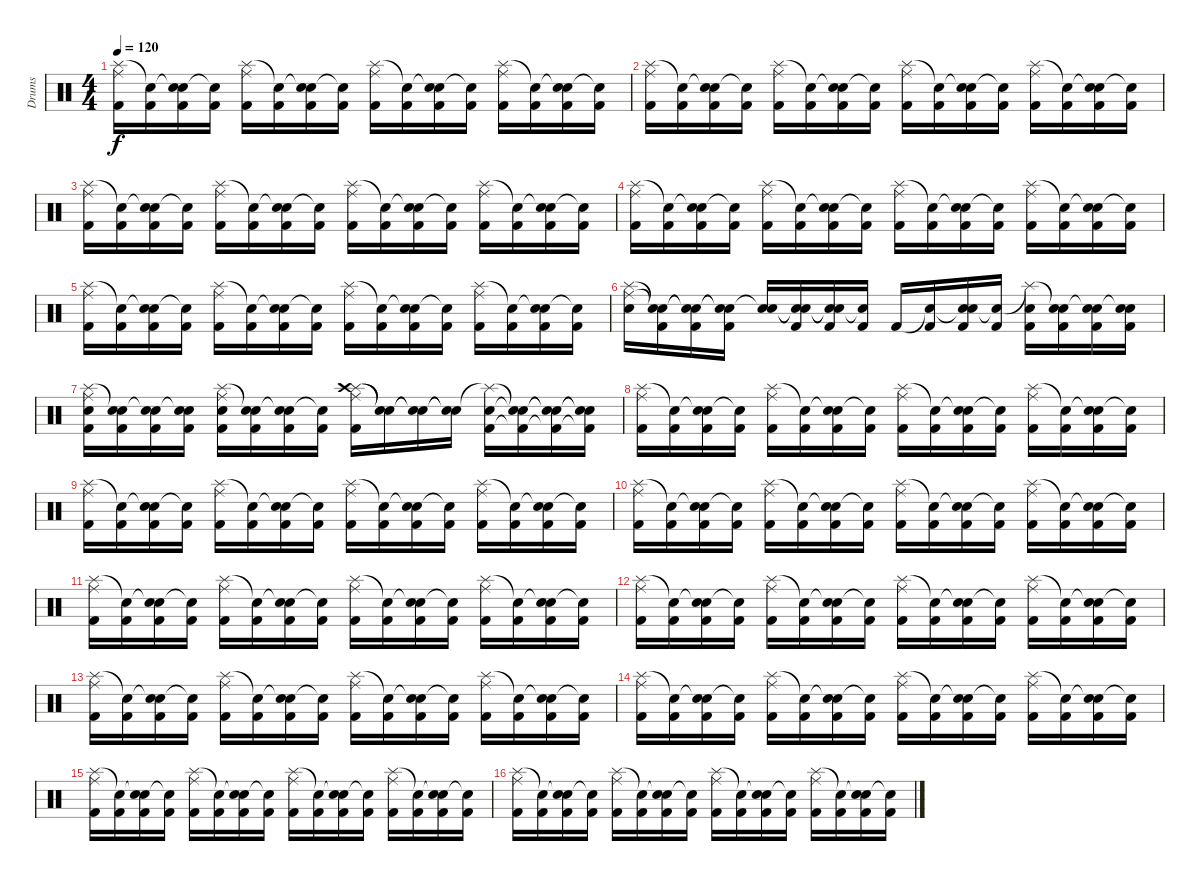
\track ("Drums" "Drums") {instrument percussion}
\staff {score}
\articulation defaults
\ts (4 4)
\tempo 120
\clef neutral
\ks c
("Splash (hit)" "Ride (middle)" "Kick (hit) 2").16{dy f} ("Snare (hit)"{t} "Kick (hit) 2").16 ("Snare (hit)"{t} "Electric Snare (hit)" "Kick (hit) 2").16 ("Snare (hit)"{t} "Kick (hit) 2").16 ("Splash (hit)" "Ride (middle)" "Kick (hit) 2").16 ("Snare (hit)"{t} "Kick (hit) 2").16 ("Snare (hit)"{t} "Electric Snare (hit)" "Kick (hit) 2").16 ("Snare (hit)"{t} "Kick (hit) 2").16 ("Splash (hit)" "Ride (middle)" "Kick (hit) 2").16 ("Snare (hit)"{t} "Kick (hit) 2").16 ("Snare (hit)"{t} "Electric Snare (hit)" "Kick (hit) 2").16 ("Snare (hit)"{t} "Kick (hit) 2").16 ("Splash (hit)" "Ride (middle)" "Kick (hit) 2").16 ("Snare (hit)"{t} "Kick (hit) 2").16 ("Snare (hit)"{t} "Electric Snare (hit)" "Kick (hit) 2").16 ("Snare (hit)"{t} "Kick (hit) 2").16 |
("Splash (hit)" "Ride (middle)" "Kick (hit) 2").16 ("Snare (hit)"{t} "Kick (hit) 2").16 ("Snare (hit)"{t} "Electric Snare (hit)" "Kick (hit) 2").16 ("Snare (hit)"{t} "Kick (hit) 2").16 ("Splash (hit)" "Ride (middle)" "Kick (hit) 2").16 ("Snare (hit)"{t} "Kick (hit) 2").16 ("Snare (hit)"{t} "Electric Snare (hit)" "Kick (hit) 2").16 ("Snare (hit)"{t} "Kick (hit) 2").16 ("Splash (hit)" "Ride (middle)" "Kick (hit) 2").16 ("Snare (hit)"{t} "Kick (hit) 2").16 ("Snare (hit)"{t} "Electric Snare (hit)" "Kick (hit) 2").16 ("Snare (hit)"{t} "Kick (hit) 2").16 ("Splash (hit)" "Ride (middle)" "Kick (hit) 2").16 ("Snare (hit)"{t} "Kick (hit) 2").16 ("Snare (hit)"{t} "Electric Snare (hit)" "Kick (hit) 2").16 ("Snare (hit)"{t} "Kick (hit) 2").16 |
("Splash (hit)" "Ride (middle)" "Kick (hit) 2").16 ("Snare (hit)"{t} "Kick (hit) 2").16 ("Snare (hit)"{t} "Electric Snare (hit)" "Kick (hit) 2").16 ("Snare (hit)"{t} "Kick (hit) 2").16 ("Splash (hit)" "Ride (middle)" "Kick (hit) 2").16 ("Snare (hit)"{t} "Kick (hit) 2").16 ("Snare (hit)"{t} "Electric Snare (hit)" "Kick (hit) 2").16 ("Snare (hit)"{t} "Kick (hit) 2").16 ("Splash (hit)" "Ride (middle)" "Kick (hit) 2").16 ("Snare (hit)"{t} "Kick (hit) 2").16 ("Snare (hit)"{t} "Electric Snare (hit)" "Kick (hit) 2").16 ("Snare (hit)"{t} "Kick (hit) 2").16 ("Splash (hit)" "Ride (middle)" "Kick (hit) 2").16 ("Snare (hit)"{t} "Kick (hit) 2").16 ("Snare (hit)"{t} "Electric Snare (hit)" "Kick (hit) 2").16 ("Snare (hit)"{t} "Kick (hit) 2").16 |
("Splash (hit)" "Ride (middle)" "Kick (hit) 2").16 ("Snare (hit)"{t} "Kick (hit) 2").16 ("Snare (hit)"{t} "Electric Snare (hit)" "Kick (hit) 2").16 ("Snare (hit)"{t} "Kick (hit) 2").16 ("Splash (hit)" "Ride (middle)" "Kick (hit) 2").16 ("Snare (hit)"{t} "Kick (hit) 2").16 ("Snare (hit)"{t} "Electric Snare (hit)" "Kick (hit) 2").16 ("Snare (hit)"{t} "Kick (hit) 2").16 ("Splash (hit)" "Ride (middle)" "Kick (hit) 2").16 ("Snare (hit)"{t} "Kick (hit) 2").16 ("Snare (hit)"{t} "Electric Snare (hit)" "Kick (hit) 2").16 ("Snare (hit)"{t} "Kick (hit) 2").16 ("Splash (hit)" "Ride (middle)" "Kick (hit) 2").16 ("Snare (hit)"{t} "Kick (hit) 2").16 ("Snare (hit)"{t} "Electric Snare (hit)" "Kick (hit) 2").16 ("Snare (hit)"{t} "Kick (hit) 2").16 |
("Splash (hit)" "Ride (middle)" "Kick (hit) 2").16 ("Snare (hit)"{t} "Kick (hit) 2").16 ("Snare (hit)"{t} "Electric Snare (hit)" "Kick (hit) 2").16 ("Snare (hit)"{t} "Kick (hit) 2").16 ("Splash (hit)" "Ride (middle)" "Kick (hit) 2").16 ("Snare (hit)"{t} "Kick (hit) 2").16 ("Snare (hit)"{t} "Electric Snare (hit)" "Kick (hit) 2").16 ("Snare (hit)"{t} "Kick (hit) 2").16 ("Splash (hit)" "Ride (middle)" "Kick (hit) 2").16 ("Snare (hit)"{t} "Kick (hit) 2").16 ("Snare (hit)"{t} "Electric Snare (hit)" "Kick (hit) 2").16 ("Snare (hit)"{t} "Kick (hit) 2").16 ("Splash (hit)" "Ride (middle)" "Kick (hit) 2").16 ("Snare (hit)"{t} "Kick (hit) 2").16 ("Snare (hit)"{t} "Electric Snare (hit)" "Kick (hit) 2").16 ("Snare (hit)"{t} "Kick (hit) 2").16 |
("Splash (hit)" "Ride (middle)" "Electric Snare (hit)").16 ("Snare (hit)"{t} "Snare (hit)"{t} "Kick (hit) 2").16 ("Snare (hit)"{t} "Snare (hit)"{t} "Kick (hit) 2").16 ("Snare (hit)"{t} "Snare (hit)"{t} "Kick (hit) 2").16 ("Snare (hit)"{t} "Electric Snare (hit)").16 ("Snare (hit)"{t} "Snare (hit)"{t} "Kick (hit) 2").16 ("Snare (hit)"{t} "Snare (hit)"{t} "Kick (hit) 2").16 ("Snare (hit)"{t} "Kick (hit) 2").16 "Kick (hit) 2".16 ("Snare (hit)"{t} "Kick (hit) 2").16 ("Snare (hit)"{t} "Electric Snare (hit)" "Kick (hit) 2").16 ("Snare (hit)"{t} "Kick (hit) 2").16 ("Splash (hit)"{t} "Electric Snare (hit)" "Kick (hit) 2").16 ("Snare (hit)"{t} "Electric Snare (hit)" "Kick (hit) 2").16 ("Snare (hit)"{t} "Electric Snare (hit)" "Kick (hit) 2").16 ("Snare (hit)"{t} "Electric Snare (hit)" "Kick (hit) 2").16 |
("Splash (hit)" "Snare (hit) 2" "Kick (hit) 2" "Ride (middle)").16 ("Snare (hit)"{t} "Snare (hit) 2" "Kick (hit) 2").16 ("Snare (hit)"{t} "Electric Snare (hit)" "Kick (hit) 2").16 ("Snare (hit)"{t} "Snare (hit) 2" "Kick (hit) 2").16 ("Splash (hit)" "Snare (hit) 2" "Kick (hit) 2" "Ride (middle)").16 ("Snare (hit)"{t} "Snare (hit) 2" "Kick (hit) 2").16 ("Snare (hit)"{t} "Snare (hit) 2" "Kick (hit) 2").16 ("Snare (hit)"{t} "Kick (hit) 2").16 ("Splash (hit)" "Crash high (hit)" "Kick (hit) 2" "Ride (middle)").16 ("Snare (hit)"{t} "Snare (hit)"{t}).16 ("Snare (hit)"{t} "Electric Snare (hit)"{t}).16 ("Snare (hit)"{t} "Snare (hit)"{t}).16 ("Splash (hit)"{t} "Electric Snare (hit)" "Kick (hit) 2").16 ("Snare (hit)"{t} "Snare (hit)"{t} "Kick (hit) 2"{t}).16 ("Snare (hit)"{t} "Electric Snare (hit)"{t} "Kick (hit) 2"{t}).16 ("Snare (hit)"{t} "Snare (hit)"{t} "Kick (hit) 2"{t}).16 |
("Splash (hit)" "Ride (middle)" "Kick (hit) 2").16 ("Snare (hit)"{t} "Kick (hit) 2").16 ("Snare (hit)"{t} "Electric Snare (hit)" "Kick (hit) 2").16 ("Snare (hit)"{t} "Kick (hit) 2").16 ("Splash (hit)" "Ride (middle)" "Kick (hit) 2").16 ("Snare (hit)"{t} "Kick (hit) 2").16 ("Snare (hit)"{t} "Electric Snare (hit)" "Kick (hit) 2").16 ("Snare (hit)"{t} "Kick (hit) 2").16 ("Splash (hit)" "Ride (middle)" "Kick (hit) 2").16 ("Snare (hit)"{t} "Kick (hit) 2").16 ("Snare (hit)"{t} "Electric Snare (hit)" "Kick (hit) 2").16 ("Snare (hit)"{t} "Kick (hit) 2").16 ("Splash (hit)" "Ride (middle)" "Kick (hit) 2").16 ("Snare (hit)"{t} "Kick (hit) 2").16 ("Snare (hit)"{t} "Electric Snare (hit)" "Kick (hit) 2").16 ("Snare (hit)"{t} "Kick (hit) 2").16 |
("Splash (hit)" "Ride (middle)" "Kick (hit) 2").16 ("Snare (hit)"{t} "Kick (hit) 2").16 ("Snare (hit)"{t} "Electric Snare (hit)" "Kick (hit) 2").16 ("Snare (hit)"{t} "Kick (hit) 2").16 ("Splash (hit)" "Ride (middle)" "Kick (hit) 2").16 ("Snare (hit)"{t} "Kick (hit) 2").16 ("Snare (hit)"{t} "Electric Snare (hit)" "Kick (hit) 2").16 ("Snare (hit)"{t} "Kick (hit) 2").16 ("Splash (hit)" "Ride (middle)" "Kick (hit) 2").16 ("Snare (hit)"{t} "Kick (hit) 2").16 ("Snare (hit)"{t} "Electric Snare (hit)" "Kick (hit) 2").16 ("Snare (hit)"{t} "Kick (hit) 2").16 ("Splash (hit)" "Ride (middle)" "Kick (hit) 2").16 ("Snare (hit)"{t} "Kick (hit) 2").16 ("Snare (hit)"{t} "Electric Snare (hit)" "Kick (hit) 2").16 ("Snare (hit)"{t} "Kick (hit) 2").16 |
("Splash (hit)" "Ride (middle)" "Kick (hit) 2").16 ("Snare (hit)"{t} "Kick (hit) 2").16 ("Snare (hit)"{t} "Electric Snare (hit)" "Kick (hit) 2").16 ("Snare (hit)"{t} "Kick (hit) 2").16 ("Splash (hit)" "Ride (middle)" "Kick (hit) 2").16 ("Snare (hit)"{t} "Kick (hit) 2").16 ("Snare (hit)"{t} "Electric Snare (hit)" "Kick (hit) 2").16 ("Snare (hit)"{t} "Kick (hit) 2").16 ("Splash (hit)" "Ride (middle)" "Kick (hit) 2").16 ("Snare (hit)"{t} "Kick (hit) 2").16 ("Snare (hit)"{t} "Electric Snare (hit)" "Kick (hit) 2").16 ("Snare (hit)"{t} "Kick (hit) 2").16 ("Splash (hit)" "Ride (middle)" "Kick (hit) 2").16 ("Snare (hit)"{t} "Kick (hit) 2").16 ("Snare (hit)"{t} "Electric Snare (hit)" "Kick (hit) 2").16 ("Snare (hit)"{t} "Kick (hit) 2").16 |
("Splash (hit)" "Ride (middle)" "Kick (hit) 2").16 ("Snare (hit)"{t} "Kick (hit) 2").16 ("Snare (hit)"{t} "Electric Snare (hit)" "Kick (hit) 2").16 ("Snare (hit)"{t} "Kick (hit) 2").16 ("Splash (hit)" "Ride (middle)" "Kick (hit) 2").16 ("Snare (hit)"{t} "Kick (hit) 2").16 ("Snare (hit)"{t} "Electric Snare (hit)" "Kick (hit) 2").16 ("Snare (hit)"{t} "Kick (hit) 2").16 ("Splash (hit)" "Ride (middle)" "Kick (hit) 2").16 ("Snare (hit)"{t} "Kick (hit) 2").16 ("Snare (hit)"{t} "Electric Snare (hit)" "Kick (hit) 2").16 ("Snare (hit)"{t} "Kick (hit) 2").16 ("Splash (hit)" "Ride (middle)" "Kick (hit) 2").16 ("Snare (hit)"{t} "Kick (hit) 2").16 ("Snare (hit)"{t} "Electric Snare (hit)" "Kick (hit) 2").16 ("Snare (hit)"{t} "Kick (hit) 2").16 |
("Splash (hit)" "Ride (middle)" "Kick (hit) 2").16 ("Snare (hit)"{t} "Kick (hit) 2").16 ("Snare (hit)"{t} "Electric Snare (hit)" "Kick (hit) 2").16 ("Snare (hit)"{t} "Kick (hit) 2").16 ("Splash (hit)" "Ride (middle)" "Kick (hit) 2").16 ("Snare (hit)"{t} "Kick (hit) 2").16 ("Snare (hit)"{t} "Electric Snare (hit)" "Kick (hit) 2").16 ("Snare (hit)"{t} "Kick (hit) 2").16 ("Splash (hit)" "Ride (middle)" "Kick (hit) 2").16 ("Snare (hit)"{t} "Kick (hit) 2").16 ("Snare (hit)"{t} "Electric Snare (hit)" "Kick (hit) 2").16 ("Snare (hit)"{t} "Kick (hit) 2").16 ("Splash (hit)" "Ride (middle)" "Kick (hit) 2").16 ("Snare (hit)"{t} "Kick (hit) 2").16 ("Snare (hit)"{t} "Electric Snare (hit)" "Kick (hit) 2").16 ("Snare (hit)"{t} "Kick (hit) 2").16 |
("Splash (hit)" "Ride (middle)" "Kick (hit) 2").16 ("Snare (hit)"{t} "Kick (hit) 2").16 ("Snare (hit)"{t} "Electric Snare (hit)" "Kick (hit) 2").16 ("Snare (hit)"{t} "Kick (hit) 2").16 ("Splash (hit)" "Ride (middle)" "Kick (hit) 2").16 ("Snare (hit)"{t} "Kick (hit) 2").16 ("Snare (hit)"{t} "Electric Snare (hit)" "Kick (hit) 2").16 ("Snare (hit)"{t} "Kick (hit) 2").16 ("Splash (hit)" "Ride (middle)" "Kick (hit) 2").16 ("Snare (hit)"{t} "Kick (hit) 2").16 ("Snare (hit)"{t} "Electric Snare (hit)" "Kick (hit) 2").16 ("Snare (hit)"{t} "Kick (hit) 2").16 ("Splash (hit)" "Ride (middle)" "Kick (hit) 2").16 ("Snare (hit)"{t} "Kick (hit) 2").16 ("Snare (hit)"{t} "Electric Snare (hit)" "Kick (hit) 2").16 ("Snare (hit)"{t} "Kick (hit) 2").16 |
("Splash (hit)" "Ride (middle)" "Kick (hit) 2").16 ("Snare (hit)"{t} "Kick (hit) 2").16 ("Snare (hit)"{t} "Electric Snare (hit)" "Kick (hit) 2").16 ("Snare (hit)"{t} "Kick (hit) 2").16 ("Splash (hit)" "Ride (middle)" "Kick (hit) 2").16 ("Snare (hit)"{t} "Kick (hit) 2").16 ("Snare (hit)"{t} "Electric Snare (hit)" "Kick (hit) 2").16 ("Snare (hit)"{t} "Kick (hit) 2").16 ("Splash (hit)" "Ride (middle)" "Kick (hit) 2").16 ("Snare (hit)"{t} "Kick (hit) 2").16 ("Snare (hit)"{t} "Electric Snare (hit)" "Kick (hit) 2").16 ("Snare (hit)"{t} "Kick (hit) 2").16 ("Splash (hit)" "Ride (middle)" "Kick (hit) 2").16 ("Snare (hit)"{t} "Kick (hit) 2").16 ("Snare (hit)"{t} "Electric Snare (hit)" "Kick (hit) 2").16 ("Snare (hit)"{t} "Kick (hit) 2").16 |
("Splash (hit)" "Ride (middle)" "Kick (hit) 2").16 ("Snare (hit)"{t} "Kick (hit) 2").16 ("Snare (hit)"{t} "Electric Snare (hit)" "Kick (hit) 2").16 ("Snare (hit)"{t} "Kick (hit) 2").16 ("Splash (hit)" "Ride (middle)" "Kick (hit) 2").16 ("Snare (hit)"{t} "Kick (hit) 2").16 ("Snare (hit)"{t} "Electric Snare (hit)" "Kick (hit) 2").16 ("Snare (hit)"{t} "Kick (hit) 2").16 ("Splash (hit)" "Ride (middle)" "Kick (hit) 2").16 ("Snare (hit)"{t} "Kick (hit) 2").16 ("Snare (hit)"{t} "Electric Snare (hit)" "Kick (hit) 2").16 ("Snare (hit)"{t} "Kick (hit) 2").16 ("Splash (hit)" "Ride (middle)" "Kick (hit) 2").16 ("Snare (hit)"{t} "Kick (hit) 2").16 ("Snare (hit)"{t} "Electric Snare (hit)" "Kick (hit) 2").16 ("Snare (hit)"{t} "Kick (hit) 2").16 |
("Splash (hit)" "Ride (middle)" "Kick (hit) 2").16 ("Snare (hit)"{t} "Kick (hit) 2").16 ("Snare (hit)"{t} "Electric Snare (hit)" "Kick (hit) 2").16 ("Snare (hit)"{t} "Kick (hit) 2").16 ("Splash (hit)" "Ride (middle)" "Kick (hit) 2").16 ("Snare (hit)"{t} "Kick (hit) 2").16 ("Snare (hit)"{t} "Electric Snare (hit)" "Kick (hit) 2").16 ("Snare (hit)"{t} "Kick (hit) 2").16 ("Splash (hit)" "Ride (middle)" "Kick (hit) 2").16 ("Snare (hit)"{t} "Kick (hit) 2").16 ("Snare (hit)"{t} "Electric Snare (hit)" "Kick (hit) 2").16 ("Snare (hit)"{t} "Kick (hit) 2").16 ("Splash (hit)" "Ride (middle)" "Kick (hit) 2").16 ("Snare (hit)"{t} "Kick (hit) 2").16 ("Snare (hit)"{t} "Electric Snare (hit)" "Kick (hit) 2").16 ("Snare (hit)"{t} "Kick (hit) 2").16
